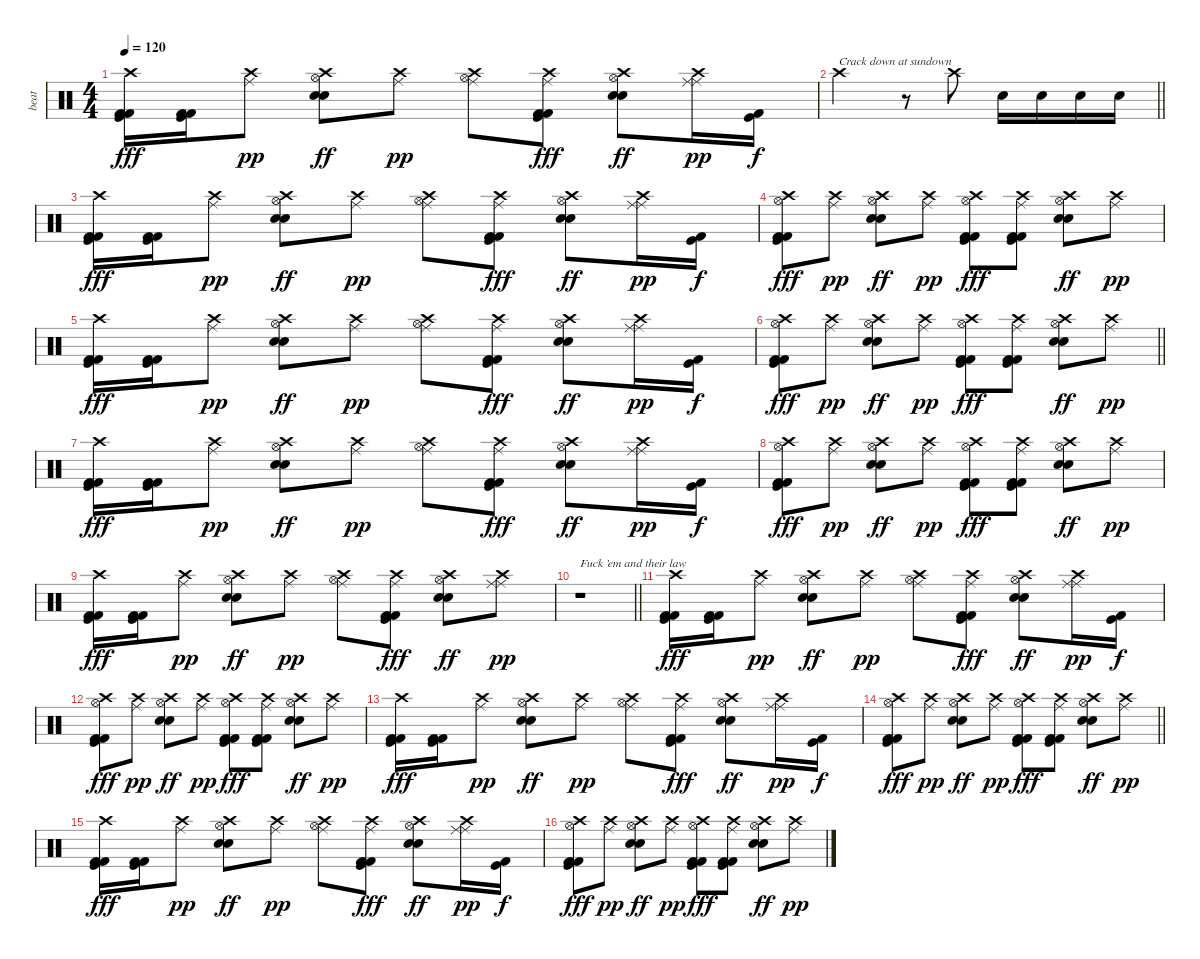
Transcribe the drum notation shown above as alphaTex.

\track ("beat" "beat") {instrument percussion}
\staff {score}
\articulation defaults
\ts (4 4)
\tempo 120
\clef neutral
\ks c
("Crash high (hit)" "Kick (hit) 2" "Kick (hit) 2" "Kick (hit)").16{dy fff} ("Kick (hit) 2" "Kick (hit) 2" "Kick (hit)").16 ("Crash high (hit)" "Ride (middle)").8{dy pp} ("Crash high (hit)" "Hi-Hat (open)" "Snare (hit) 2" "Electric Snare (hit)").8{dy ff} ("Crash high (hit)" "Ride (middle)").8{dy pp} ("Crash high (hit)" "Hi-Hat (open)" "Ride (middle)").8 ("Crash high (hit)" "Ride (middle)" "Kick (hit) 2" "Kick (hit) 2" "Kick (hit)").8{dy fff} ("Crash high (hit)" "Hi-Hat (open)" "Snare (hit) 2" "Electric Snare (hit)").8{dy ff} ("Crash high (hit)" "Ride (middle)" "Ride (middle)").16{dy pp} ("Kick (hit) 2" "Kick (hit)").16{dy f} |
\barLineRight lightlight "Crash high (hit)".2{txt "Crack down at sundown "}
r.8 "Crash high (hit)".8 "Hand Clap (hit)".16 "Hand Clap (hit)".16 "Hand Clap (hit)".16 "Hand Clap (hit)".16 |
("Crash high (hit)" "Kick (hit) 2" "Kick (hit) 2" "Kick (hit)").16{dy fff} ("Kick (hit) 2" "Kick (hit) 2" "Kick (hit)").16 ("Crash high (hit)" "Ride (middle)").8{dy pp} ("Crash high (hit)" "Hi-Hat (open)" "Snare (hit) 2" "Electric Snare (hit)").8{dy ff} ("Crash high (hit)" "Ride (middle)").8{dy pp} ("Crash high (hit)" "Hi-Hat (open)" "Ride (middle)").8 ("Crash high (hit)" "Ride (middle)" "Kick (hit) 2" "Kick (hit) 2" "Kick (hit)").8{dy fff} ("Crash high (hit)" "Hi-Hat (open)" "Snare (hit) 2" "Electric Snare (hit)").8{dy ff} ("Crash high (hit)" "Ride (middle)" "Ride (middle)").16{dy pp} ("Kick (hit) 2" "Kick (hit)").16{dy f} |
("Crash high (hit)" "Hi-Hat (open)" "Kick (hit) 2" "Kick (hit) 2" "Kick (hit)").8{dy fff} ("Crash high (hit)" "Ride (middle)").8{dy pp} ("Crash high (hit)" "Hi-Hat (open)" "Snare (hit) 2" "Electric Snare (hit)").8{dy ff} ("Crash high (hit)" "Ride (middle)").8{dy pp} ("Crash high (hit)" "Hi-Hat (open)" "Kick (hit) 2" "Kick (hit) 2" "Kick (hit)").8{dy fff} ("Crash high (hit)" "Ride (middle)" "Kick (hit) 2" "Kick (hit) 2" "Kick (hit)").8 ("Crash high (hit)" "Hi-Hat (open)" "Snare (hit) 2" "Electric Snare (hit)").8{dy ff} ("Crash high (hit)" "Ride (middle)").8{dy pp} |
("Crash high (hit)" "Kick (hit) 2" "Kick (hit) 2" "Kick (hit)").16{dy fff} ("Kick (hit) 2" "Kick (hit) 2" "Kick (hit)").16 ("Crash high (hit)" "Ride (middle)").8{dy pp} ("Crash high (hit)" "Hi-Hat (open)" "Snare (hit) 2" "Electric Snare (hit)").8{dy ff} ("Crash high (hit)" "Ride (middle)").8{dy pp} ("Crash high (hit)" "Hi-Hat (open)" "Ride (middle)").8 ("Crash high (hit)" "Ride (middle)" "Kick (hit) 2" "Kick (hit) 2" "Kick (hit)").8{dy fff} ("Crash high (hit)" "Hi-Hat (open)" "Snare (hit) 2" "Electric Snare (hit)").8{dy ff} ("Crash high (hit)" "Ride (middle)" "Ride (middle)").16{dy pp} ("Kick (hit) 2" "Kick (hit)").16{dy f} |
\barLineRight lightlight
("Crash high (hit)" "Hi-Hat (open)" "Kick (hit) 2" "Kick (hit) 2" "Kick (hit)").8{dy fff} ("Crash high (hit)" "Ride (middle)").8{dy pp} ("Crash high (hit)" "Hi-Hat (open)" "Snare (hit) 2" "Electric Snare (hit)").8{dy ff} ("Crash high (hit)" "Ride (middle)").8{dy pp} ("Crash high (hit)" "Hi-Hat (open)" "Kick (hit) 2" "Kick (hit) 2" "Kick (hit)").8{dy fff} ("Crash high (hit)" "Ride (middle)" "Kick (hit) 2" "Kick (hit) 2" "Kick (hit)").8 ("Crash high (hit)" "Hi-Hat (open)" "Snare (hit) 2" "Electric Snare (hit)").8{dy ff} ("Crash high (hit)" "Ride (middle)").8{dy pp} |
("Crash high (hit)" "Kick (hit) 2" "Kick (hit) 2" "Kick (hit)").16{dy fff} ("Kick (hit) 2" "Kick (hit) 2" "Kick (hit)").16 ("Crash high (hit)" "Ride (middle)").8{dy pp} ("Crash high (hit)" "Hi-Hat (open)" "Snare (hit) 2" "Electric Snare (hit)").8{dy ff} ("Crash high (hit)" "Ride (middle)").8{dy pp} ("Crash high (hit)" "Hi-Hat (open)" "Ride (middle)").8 ("Crash high (hit)" "Ride (middle)" "Kick (hit) 2" "Kick (hit) 2" "Kick (hit)").8{dy fff} ("Crash high (hit)" "Hi-Hat (open)" "Snare (hit) 2" "Electric Snare (hit)").8{dy ff} ("Crash high (hit)" "Ride (middle)" "Ride (middle)").16{dy pp} ("Kick (hit) 2" "Kick (hit)").16{dy f} |
("Crash high (hit)" "Hi-Hat (open)" "Kick (hit) 2" "Kick (hit) 2" "Kick (hit)").8{dy fff} ("Crash high (hit)" "Ride (middle)").8{dy pp} ("Crash high (hit)" "Hi-Hat (open)" "Snare (hit) 2" "Electric Snare (hit)").8{dy ff} ("Crash high (hit)" "Ride (middle)").8{dy pp} ("Crash high (hit)" "Hi-Hat (open)" "Kick (hit) 2" "Kick (hit) 2" "Kick (hit)").8{dy fff} ("Crash high (hit)" "Ride (middle)" "Kick (hit) 2" "Kick (hit) 2" "Kick (hit)").8 ("Crash high (hit)" "Hi-Hat (open)" "Snare (hit) 2" "Electric Snare (hit)").8{dy ff} ("Crash high (hit)" "Ride (middle)").8{dy pp} |
("Crash high (hit)" "Kick (hit) 2" "Kick (hit) 2" "Kick (hit)").16{dy fff} ("Kick (hit) 2" "Kick (hit) 2" "Kick (hit)").16 ("Crash high (hit)" "Ride (middle)").8{dy pp} ("Crash high (hit)" "Hi-Hat (open)" "Snare (hit) 2" "Electric Snare (hit)").8{dy ff} ("Crash high (hit)" "Ride (middle)").8{dy pp} ("Crash high (hit)" "Hi-Hat (open)" "Ride (middle)").8 ("Crash high (hit)" "Ride (middle)" "Kick (hit) 2" "Kick (hit) 2" "Kick (hit)").8{dy fff} ("Crash high (hit)" "Hi-Hat (open)" "Snare (hit) 2" "Electric Snare (hit)").8{dy ff} ("Crash high (hit)" "Ride (middle)" "Ride (middle)").8{dy pp} |
\barLineRight lightlight
r.1{txt "Fuck ’em and their law "} |
("Crash high (hit)" "Kick (hit) 2" "Kick (hit) 2" "Kick (hit)").16{dy fff} ("Kick (hit) 2" "Kick (hit) 2" "Kick (hit)").16 ("Crash high (hit)" "Ride (middle)").8{dy pp} ("Crash high (hit)" "Hi-Hat (open)" "Snare (hit) 2" "Electric Snare (hit)").8{dy ff} ("Crash high (hit)" "Ride (middle)").8{dy pp} ("Crash high (hit)" "Hi-Hat (open)" "Ride (middle)").8 ("Crash high (hit)" "Ride (middle)" "Kick (hit) 2" "Kick (hit) 2" "Kick (hit)").8{dy fff} ("Crash high (hit)" "Hi-Hat (open)" "Snare (hit) 2" "Electric Snare (hit)").8{dy ff} ("Crash high (hit)" "Ride (middle)" "Ride (middle)").16{dy pp} ("Kick (hit) 2" "Kick (hit)").16{dy f} |
("Crash high (hit)" "Hi-Hat (open)" "Kick (hit) 2" "Kick (hit) 2" "Kick (hit)").8{dy fff} ("Crash high (hit)" "Ride (middle)").8{dy pp} ("Crash high (hit)" "Hi-Hat (open)" "Snare (hit) 2" "Electric Snare (hit)").8{dy ff} ("Crash high (hit)" "Ride (middle)").8{dy pp} ("Crash high (hit)" "Hi-Hat (open)" "Kick (hit) 2" "Kick (hit) 2" "Kick (hit)").8{dy fff} ("Crash high (hit)" "Ride (middle)" "Kick (hit) 2" "Kick (hit) 2" "Kick (hit)").8 ("Crash high (hit)" "Hi-Hat (open)" "Snare (hit) 2" "Electric Snare (hit)").8{dy ff} ("Crash high (hit)" "Ride (middle)").8{dy pp} |
("Crash high (hit)" "Kick (hit) 2" "Kick (hit) 2" "Kick (hit)").16{dy fff} ("Kick (hit) 2" "Kick (hit) 2" "Kick (hit)").16 ("Crash high (hit)" "Ride (middle)").8{dy pp} ("Crash high (hit)" "Hi-Hat (open)" "Snare (hit) 2" "Electric Snare (hit)").8{dy ff} ("Crash high (hit)" "Ride (middle)").8{dy pp} ("Crash high (hit)" "Hi-Hat (open)" "Ride (middle)").8 ("Crash high (hit)" "Ride (middle)" "Kick (hit) 2" "Kick (hit) 2" "Kick (hit)").8{dy fff} ("Crash high (hit)" "Hi-Hat (open)" "Snare (hit) 2" "Electric Snare (hit)").8{dy ff} ("Crash high (hit)" "Ride (middle)" "Ride (middle)").16{dy pp} ("Kick (hit) 2" "Kick (hit)").16{dy f} |
\barLineRight lightlight
("Crash high (hit)" "Hi-Hat (open)" "Kick (hit) 2" "Kick (hit) 2" "Kick (hit)").8{dy fff} ("Crash high (hit)" "Ride (middle)").8{dy pp} ("Crash high (hit)" "Hi-Hat (open)" "Snare (hit) 2" "Electric Snare (hit)").8{dy ff} ("Crash high (hit)" "Ride (middle)").8{dy pp} ("Crash high (hit)" "Hi-Hat (open)" "Kick (hit) 2" "Kick (hit) 2" "Kick (hit)").8{dy fff} ("Crash high (hit)" "Ride (middle)" "Kick (hit) 2" "Kick (hit) 2" "Kick (hit)").8 ("Crash high (hit)" "Hi-Hat (open)" "Snare (hit) 2" "Electric Snare (hit)").8{dy ff} ("Crash high (hit)" "Ride (middle)").8{dy pp} |
("Crash high (hit)" "Kick (hit) 2" "Kick (hit) 2" "Kick (hit)").16{dy fff} ("Kick (hit) 2" "Kick (hit) 2" "Kick (hit)").16 ("Crash high (hit)" "Ride (middle)").8{dy pp} ("Crash high (hit)" "Hi-Hat (open)" "Snare (hit) 2" "Electric Snare (hit)").8{dy ff} ("Crash high (hit)" "Ride (middle)").8{dy pp} ("Crash high (hit)" "Hi-Hat (open)" "Ride (middle)").8 ("Crash high (hit)" "Ride (middle)" "Kick (hit) 2" "Kick (hit) 2" "Kick (hit)").8{dy fff} ("Crash high (hit)" "Hi-Hat (open)" "Snare (hit) 2" "Electric Snare (hit)").8{dy ff} ("Crash high (hit)" "Ride (middle)" "Ride (middle)").16{dy pp} ("Kick (hit) 2" "Kick (hit)").16{dy f} |
("Crash high (hit)" "Hi-Hat (open)" "Kick (hit) 2" "Kick (hit) 2" "Kick (hit)").8{dy fff} ("Crash high (hit)" "Ride (middle)").8{dy pp} ("Crash high (hit)" "Hi-Hat (open)" "Snare (hit) 2" "Electric Snare (hit)").8{dy ff} ("Crash high (hit)" "Ride (middle)").8{dy pp} ("Crash high (hit)" "Hi-Hat (open)" "Kick (hit) 2" "Kick (hit) 2" "Kick (hit)").8{dy fff} ("Crash high (hit)" "Ride (middle)" "Kick (hit) 2" "Kick (hit) 2" "Kick (hit)").8 ("Crash high (hit)" "Hi-Hat (open)" "Snare (hit) 2" "Electric Snare (hit)").8{dy ff} ("Crash high (hit)" "Ride (middle)").8{dy pp}
